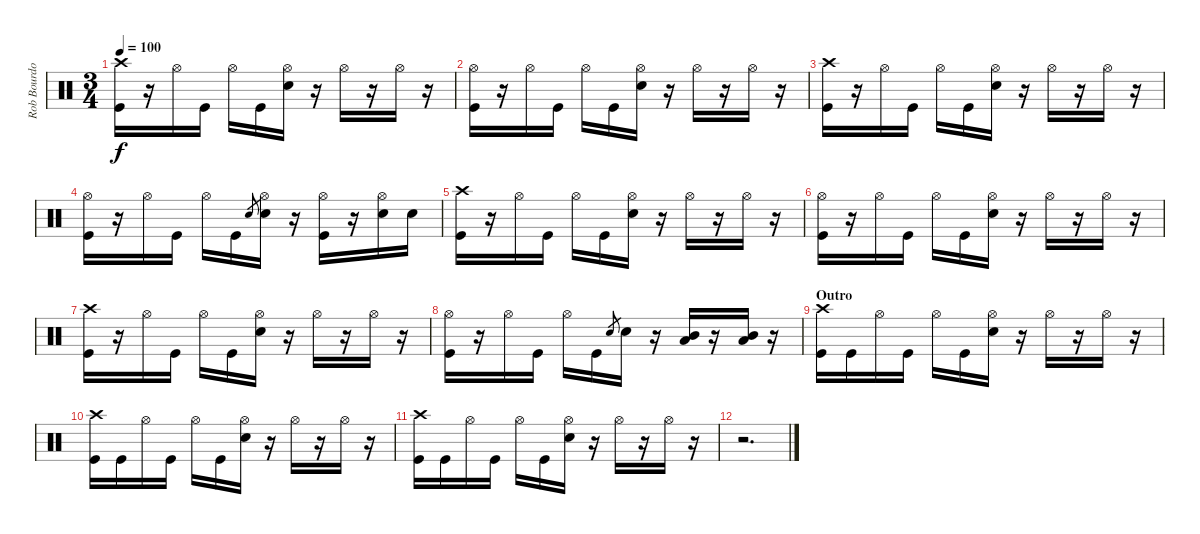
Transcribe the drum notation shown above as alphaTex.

\track ("Rob Bourdon" "Rob Bourdo") {instrument percussion}
\staff {score}
\articulation defaults
\ts (3 4)
\tempo 100
\clef neutral
\ks c
("Crash high (hit)" "Kick (hit)").16{dy f} r.16 "Hi-Hat (open)".16 "Kick (hit)".16 "Hi-Hat (open)".16 "Kick (hit)".16 ("Hi-Hat (open)" "Snare (hit) 2").16 r.16 "Hi-Hat (open)".16 r.16 "Hi-Hat (open)".16 r.16 |
("Hi-Hat (open)" "Kick (hit)").16 r.16 "Hi-Hat (open)".16 "Kick (hit)".16 "Hi-Hat (open)".16 "Kick (hit)".16 ("Hi-Hat (open)" "Snare (hit) 2").16 r.16 "Hi-Hat (open)".16 r.16 "Hi-Hat (open)".16 r.16 |
("Crash high (hit)" "Kick (hit)").16 r.16 "Hi-Hat (open)".16 "Kick (hit)".16 "Hi-Hat (open)".16 "Kick (hit)".16 ("Hi-Hat (open)" "Snare (hit) 2").16 r.16 "Hi-Hat (open)".16 r.16 "Hi-Hat (open)".16 r.16 |
("Hi-Hat (open)" "Kick (hit)").16 r.16 "Hi-Hat (open)".16 "Kick (hit)".16 "Hi-Hat (open)".16 "Kick (hit)".16 "Snare (hit) 2".8{gr} ("Hi-Hat (open)" "Snare (hit) 2").16 r.16 ("Hi-Hat (open)" "Kick (hit)").16 r.16 ("Hi-Hat (open)" "Snare (hit) 2").16 "Snare (hit) 2".16 |
("Crash high (hit)" "Kick (hit)").16 r.16 "Hi-Hat (open)".16 "Kick (hit)".16 "Hi-Hat (open)".16 "Kick (hit)".16 ("Hi-Hat (open)" "Snare (hit) 2").16 r.16 "Hi-Hat (open)".16 r.16 "Hi-Hat (open)".16 r.16 |
("Hi-Hat (open)" "Kick (hit)").16 r.16 "Hi-Hat (open)".16 "Kick (hit)".16 "Hi-Hat (open)".16 "Kick (hit)".16 ("Hi-Hat (open)" "Snare (hit) 2").16 r.16 "Hi-Hat (open)".16 r.16 "Hi-Hat (open)".16 r.16 |
("Crash high (hit)" "Kick (hit)").16 r.16 "Hi-Hat (open)".16 "Kick (hit)".16 "Hi-Hat (open)".16 "Kick (hit)".16 ("Hi-Hat (open)" "Snare (hit) 2").16 r.16 "Hi-Hat (open)".16 r.16 "Hi-Hat (open)".16 r.16 |
("Hi-Hat (open)" "Kick (hit)").16 r.16 "Hi-Hat (open)".16 "Kick (hit)".16 "Hi-Hat (open)".16 "Kick (hit)".16 "Snare (hit) 2".8{gr} "Snare (hit) 2".16 r.16 ("Mid Tom (hit)" "Low Tom (hit)").16 r.16 ("Mid Tom (hit)" "Low Tom (hit)").16 r.16 |
\section ("" "Outro")
("Crash high (hit)" "Kick (hit)").16 "Kick (hit)".16 "Hi-Hat (open)".16 "Kick (hit)".16 "Hi-Hat (open)".16 "Kick (hit)".16 ("Hi-Hat (open)" "Snare (hit) 2").16 r.16 "Hi-Hat (open)".16 r.16 "Hi-Hat (open)".16 r.16 |
("Crash high (hit)" "Kick (hit)").16 "Kick (hit)".16 "Hi-Hat (open)".16 "Kick (hit)".16 "Hi-Hat (open)".16 "Kick (hit)".16 ("Hi-Hat (open)" "Snare (hit) 2").16 r.16 "Hi-Hat (open)".16 r.16 "Hi-Hat (open)".16 r.16 |
("Crash high (hit)" "Kick (hit)").16 "Kick (hit)".16 "Hi-Hat (open)".16 "Kick (hit)".16 "Hi-Hat (open)".16 "Kick (hit)".16 ("Hi-Hat (open)" "Snare (hit) 2").16 r.16 "Hi-Hat (open)".16 r.16 "Hi-Hat (open)".16 r.16 |
r.2{d}
